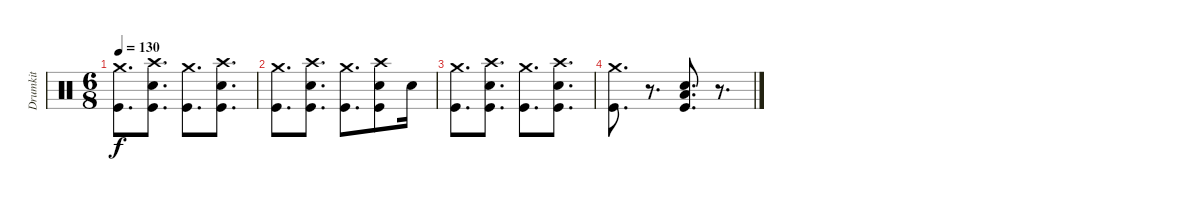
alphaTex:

\track ("Drumkit" "Drumkit") {instrument percussion}
\staff {score}
\articulation defaults
\ts (6 8)
\tempo 130
\clef neutral
\ks c
("Kick (hit)" "Crash medium (hit)").8{d dy f} ("Kick (hit)" "Crash high (hit)" "Snare (hit) 2").8{d} ("Kick (hit)" "Crash medium (hit)").8{d} ("Kick (hit)" "Crash high (hit)" "Snare (hit) 2").8{d} |
("Kick (hit)" "Crash medium (hit)").8{d} ("Kick (hit)" "Crash high (hit)" "Snare (hit) 2").8{d} ("Kick (hit)" "Crash medium (hit)").8{d} ("Kick (hit)" "Crash high (hit)" "Snare (hit) 2").8 "Snare (hit) 2".16 |
("Kick (hit)" "Crash medium (hit)").8{d} ("Kick (hit)" "Crash high (hit)" "Snare (hit) 2").8{d} ("Kick (hit)" "Crash medium (hit)").8{d} ("Kick (hit)" "Crash high (hit)" "Snare (hit) 2").8{d} |
("Kick (hit)" "Crash medium (hit)").8{d} r.8{d} ("Snare (hit) 2" "Low Tom (hit)" "Kick (hit)").8{d} r.8{d}
